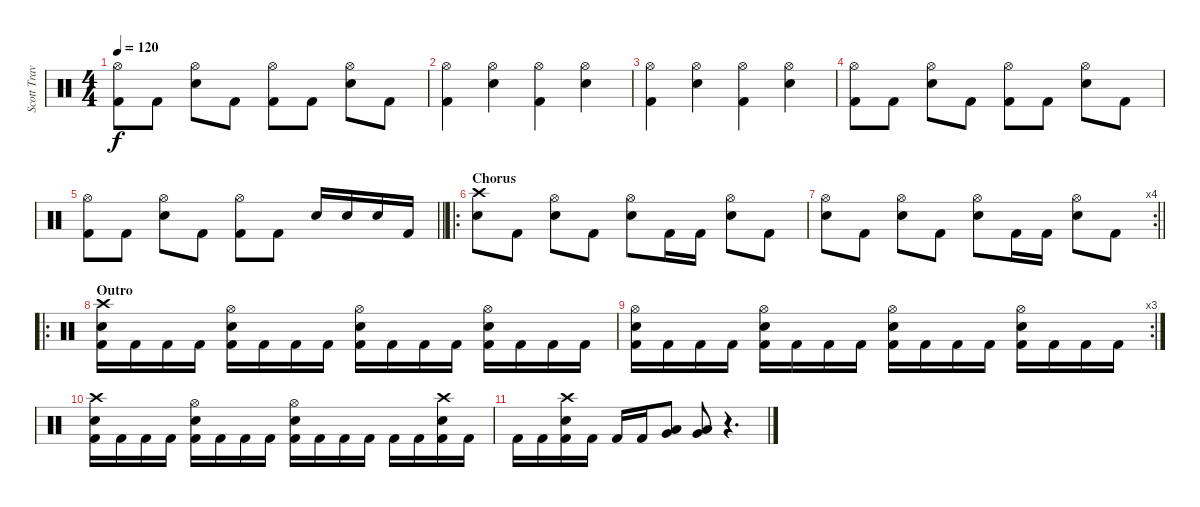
\track ("Scott Travis" "Scott Trav") {instrument percussion}
\staff {score}
\articulation defaults
\ts (4 4)
\tempo 120
\clef neutral
\ks c
("Hi-Hat (open)" "Kick (hit) 2").8{dy f} "Kick (hit) 2".8 ("Hi-Hat (open)" "Snare (hit) 2").8 "Kick (hit) 2".8 ("Hi-Hat (open)" "Kick (hit) 2").8 "Kick (hit) 2".8 ("Hi-Hat (open)" "Snare (hit) 2").8 "Kick (hit) 2".8 |
("Hi-Hat (open)" "Kick (hit) 2").4 ("Hi-Hat (open)" "Snare (hit) 2").4 ("Hi-Hat (open)" "Kick (hit) 2").4 ("Hi-Hat (open)" "Snare (hit) 2").4 |
("Hi-Hat (open)" "Kick (hit) 2").4 ("Hi-Hat (open)" "Snare (hit) 2").4 ("Hi-Hat (open)" "Kick (hit) 2").4 ("Hi-Hat (open)" "Snare (hit) 2").4 |
("Hi-Hat (open)" "Kick (hit) 2").8 "Kick (hit) 2".8 ("Hi-Hat (open)" "Snare (hit) 2").8 "Kick (hit) 2".8 ("Hi-Hat (open)" "Kick (hit) 2").8 "Kick (hit) 2".8 ("Hi-Hat (open)" "Snare (hit) 2").8 "Kick (hit) 2".8 |
\barLineRight lightlight
("Hi-Hat (open)" "Kick (hit) 2").8 "Kick (hit) 2".8 ("Hi-Hat (open)" "Snare (hit) 2").8 "Kick (hit) 2".8 ("Hi-Hat (open)" "Kick (hit) 2").8 "Kick (hit) 2".8 "Snare (hit) 2".16 "Snare (hit) 2".16 "Snare (hit) 2".16 "Kick (hit) 2".16 |
\ro
\section ("" "Chorus")
("Crash high (hit)" "Snare (hit) 2").8 "Kick (hit) 2".8 ("Hi-Hat (open)" "Snare (hit) 2").8 "Kick (hit) 2".8 ("Hi-Hat (open)" "Snare (hit) 2").8 "Kick (hit) 2".16 "Kick (hit) 2".16 ("Hi-Hat (open)" "Snare (hit) 2").8 "Kick (hit) 2".8 |
\rc 4
\barLineRight lightlight
("Hi-Hat (open)" "Snare (hit) 2").8 "Kick (hit) 2".8 ("Hi-Hat (open)" "Snare (hit) 2").8 "Kick (hit) 2".8 ("Hi-Hat (open)" "Snare (hit) 2").8 "Kick (hit) 2".16 "Kick (hit) 2".16 ("Hi-Hat (open)" "Snare (hit) 2").8 "Kick (hit) 2".8 |
\ro
\section ("" "Outro")
("Crash high (hit)" "Snare (hit) 2" "Kick (hit) 2").16 "Kick (hit) 2".16 "Kick (hit) 2".16 "Kick (hit) 2".16 ("Hi-Hat (open)" "Snare (hit) 2" "Kick (hit) 2").16 "Kick (hit) 2".16 "Kick (hit) 2".16 "Kick (hit) 2".16 ("Hi-Hat (open)" "Snare (hit) 2" "Kick (hit) 2").16 "Kick (hit) 2".16 "Kick (hit) 2".16 "Kick (hit) 2".16 ("Hi-Hat (open)" "Snare (hit) 2" "Kick (hit) 2").16 "Kick (hit) 2".16 "Kick (hit) 2".16 "Kick (hit) 2".16 |
\rc 3
("Hi-Hat (open)" "Snare (hit) 2" "Kick (hit) 2").16 "Kick (hit) 2".16 "Kick (hit) 2".16 "Kick (hit) 2".16 ("Hi-Hat (open)" "Snare (hit) 2" "Kick (hit) 2").16 "Kick (hit) 2".16 "Kick (hit) 2".16 "Kick (hit) 2".16 ("Hi-Hat (open)" "Snare (hit) 2" "Kick (hit) 2").16 "Kick (hit) 2".16 "Kick (hit) 2".16 "Kick (hit) 2".16 ("Hi-Hat (open)" "Snare (hit) 2" "Kick (hit) 2").16 "Kick (hit) 2".16 "Kick (hit) 2".16 "Kick (hit) 2".16 |
("Crash high (hit)" "Snare (hit) 2" "Kick (hit) 2").16 "Kick (hit) 2".16 "Kick (hit) 2".16 "Kick (hit) 2".16 ("Hi-Hat (open)" "Snare (hit) 2" "Kick (hit) 2").16 "Kick (hit) 2".16 "Kick (hit) 2".16 "Kick (hit) 2".16 ("Hi-Hat (open)" "Snare (hit) 2" "Kick (hit) 2").16 "Kick (hit) 2".16 "Kick (hit) 2".16 "Kick (hit) 2".16 "Kick (hit) 2".16 "Kick (hit) 2".16 ("Crash high (hit)" "Snare (hit) 2" "Kick (hit) 2").16 "Kick (hit) 2".16 |
"Kick (hit) 2".16 "Kick (hit) 2".16 ("Crash high (hit)" "Snare (hit) 2" "Kick (hit) 2").16 "Kick (hit) 2".16 "Kick (hit) 2".16 "Kick (hit) 2".16 ("Low Tom (hit)" "Very Low Tom (hit)").8 ("Low Tom (hit)" "Very Low Tom (hit)").8 r.4{d}
